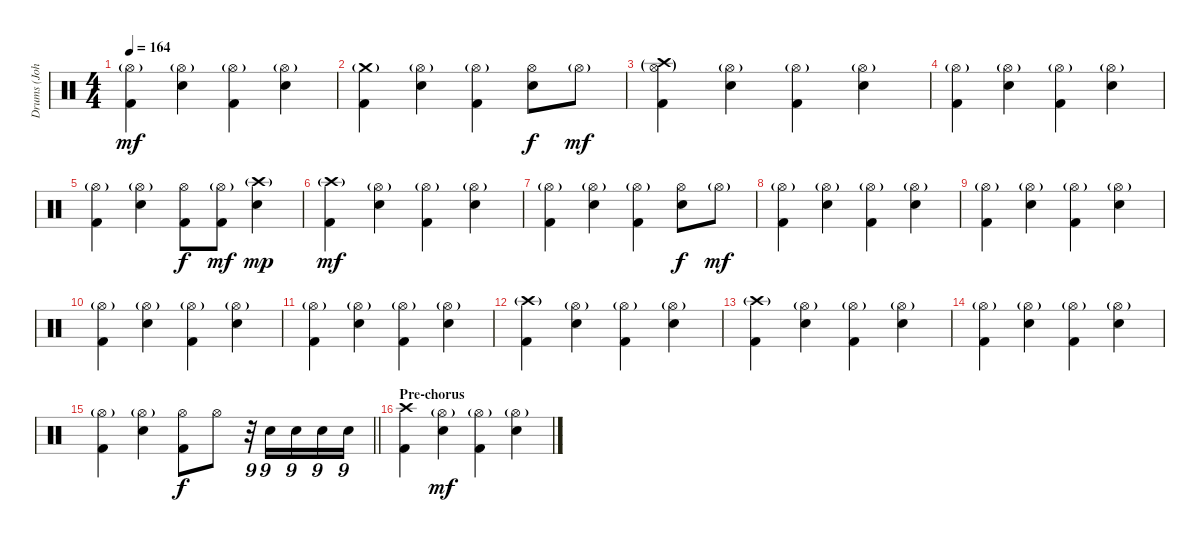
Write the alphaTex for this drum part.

\track ("Drums (John O'Reilly)" "Drums (Joh") {instrument percussion}
\staff {score}
\articulation defaults
\ts (4 4)
\tempo 164
\clef neutral
\ks c
("Hi-Hat (open)"{g} "Kick (hit) 2").4{dy mf} ("Hi-Hat (open)"{g} "Electric Snare (hit)").4 ("Hi-Hat (open)"{g} "Kick (hit) 2").4 ("Hi-Hat (open)"{g} "Electric Snare (hit)").4 |
("Crash medium (hit)"{g} "Kick (hit) 2").4 ("Hi-Hat (open)"{g} "Electric Snare (hit)").4 ("Hi-Hat (open)"{g} "Kick (hit) 2").4 ("Hi-Hat (open)" "Electric Snare (hit)").8{dy f} "Hi-Hat (open)"{g}.8{dy mf} |
("Crash high (hit)"{g} "Hi-Hat (open)"{g} "Kick (hit) 2").4 ("Hi-Hat (open)"{g} "Electric Snare (hit)").4 ("Hi-Hat (open)"{g} "Kick (hit) 2").4 ("Hi-Hat (open)"{g} "Electric Snare (hit)").4 |
("Hi-Hat (open)"{g} "Kick (hit) 2").4 ("Hi-Hat (open)"{g} "Electric Snare (hit)").4 ("Hi-Hat (open)"{g} "Kick (hit) 2").4 ("Hi-Hat (open)"{g} "Electric Snare (hit)").4 |
("Hi-Hat (open)"{g} "Kick (hit) 2").4 ("Hi-Hat (open)"{g} "Electric Snare (hit)").4 ("Hi-Hat (open)" "Kick (hit) 2").8{dy f} ("Hi-Hat (open)"{g} "Kick (hit) 2").8{dy mf} ("Crash high (hit)"{g} "Electric Snare (hit)").4{dy mp} |
("Crash high (hit)"{g} "Kick (hit) 2").4{dy mf} ("Hi-Hat (open)"{g} "Electric Snare (hit)").4 ("Hi-Hat (open)"{g} "Kick (hit) 2").4 ("Hi-Hat (open)"{g} "Electric Snare (hit)").4 |
("Hi-Hat (open)"{g} "Kick (hit) 2").4 ("Hi-Hat (open)"{g} "Electric Snare (hit)").4 ("Hi-Hat (open)"{g} "Kick (hit) 2").4 ("Hi-Hat (open)" "Electric Snare (hit)").8{dy f} "Hi-Hat (open)"{g}.8{dy mf} |
("Hi-Hat (open)"{g} "Kick (hit) 2").4 ("Hi-Hat (open)"{g} "Electric Snare (hit)").4 ("Hi-Hat (open)"{g} "Kick (hit) 2").4 ("Hi-Hat (open)"{g} "Electric Snare (hit)").4 |
("Hi-Hat (open)"{g} "Kick (hit) 2").4 ("Hi-Hat (open)"{g} "Electric Snare (hit)").4 ("Hi-Hat (open)"{g} "Kick (hit) 2").4 ("Hi-Hat (open)"{g} "Electric Snare (hit)").4 |
("Hi-Hat (open)"{g} "Kick (hit) 2").4 ("Hi-Hat (open)"{g} "Electric Snare (hit)").4 ("Hi-Hat (open)"{g} "Kick (hit) 2").4 ("Hi-Hat (open)"{g} "Electric Snare (hit)").4 |
("Hi-Hat (open)"{g} "Kick (hit) 2").4 ("Hi-Hat (open)"{g} "Electric Snare (hit)").4 ("Hi-Hat (open)"{g} "Kick (hit) 2").4 ("Hi-Hat (open)"{g} "Electric Snare (hit)").4 |
("Crash high (hit)"{g} "Kick (hit) 2").4 ("Hi-Hat (open)"{g} "Electric Snare (hit)").4 ("Hi-Hat (open)"{g} "Kick (hit) 2").4 ("Hi-Hat (open)"{g} "Electric Snare (hit)").4 |
("Crash high (hit)"{g} "Kick (hit) 2").4 ("Hi-Hat (open)"{g} "Electric Snare (hit)").4 ("Hi-Hat (open)"{g} "Kick (hit) 2").4 ("Hi-Hat (open)"{g} "Electric Snare (hit)").4 |
("Hi-Hat (open)"{g} "Kick (hit) 2").4 ("Hi-Hat (open)"{g} "Electric Snare (hit)").4 ("Hi-Hat (open)"{g} "Kick (hit) 2").4 ("Hi-Hat (open)"{g} "Electric Snare (hit)").4 |
\barLineRight lightlight
("Hi-Hat (open)"{g} "Kick (hit) 2").4 ("Hi-Hat (open)"{g} "Electric Snare (hit)").4 ("Hi-Hat (open)" "Kick (hit) 2").8{dy f} "Hi-Hat (open)".8 r.32{tu (9 8)} "Electric Snare (hit)".16{tu (9 8)} "Electric Snare (hit)".16{tu (9 8)} "Electric Snare (hit)".16{tu (9 8)} "Electric Snare (hit)".16{tu (9 8)} |
\section ("" "Pre-chorus")
("Crash high (hit)" "Kick (hit) 2").4 ("Hi-Hat (open)"{g} "Electric Snare (hit)").4{dy mf} ("Hi-Hat (open)"{g} "Kick (hit) 2").4 ("Hi-Hat (open)"{g} "Electric Snare (hit)").4
